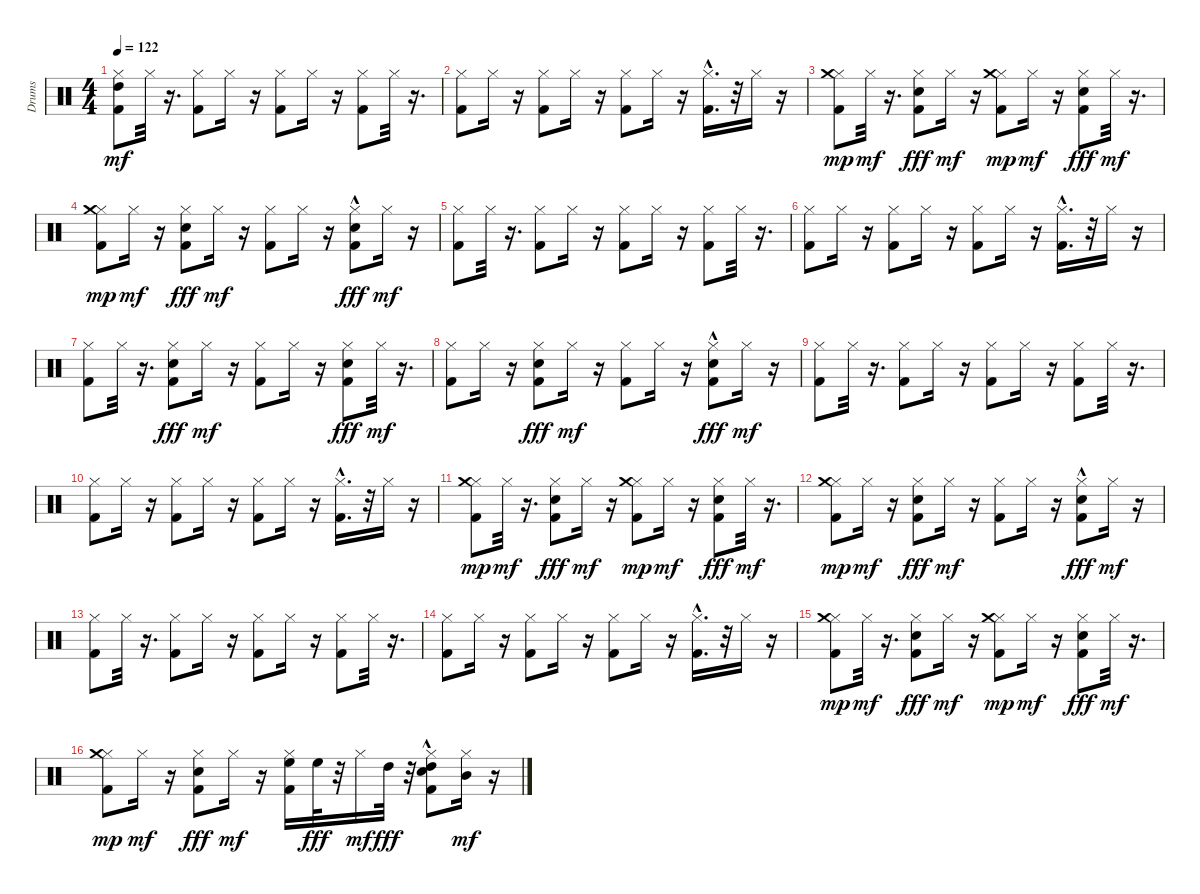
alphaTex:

\track ("Drums" "Drums") {instrument percussion}
\staff {score}
\articulation defaults
\ts (4 4)
\tempo 122
\clef neutral
\ks c
("High Tom (hit)" "Hi-Hat (closed)" "Kick (hit) 2").8{dy mf} "Hi-Hat (closed)".32 r.16{d} ("Hi-Hat (closed)" "Kick (hit) 2").8 "Hi-Hat (closed)".16 r.16 ("Hi-Hat (closed)" "Kick (hit) 2").8 "Hi-Hat (closed)".16 r.16 ("Hi-Hat (closed)" "Kick (hit) 2").8 "Hi-Hat (closed)".32 r.16{d} |
("Hi-Hat (closed)" "Kick (hit) 2").8 "Hi-Hat (closed)".16 r.16 ("Hi-Hat (closed)" "Kick (hit) 2").8 "Hi-Hat (closed)".16 r.16 ("Hi-Hat (closed)" "Kick (hit) 2").8 "Hi-Hat (closed)".16 r.16 ("Hi-Hat (closed)" "Kick (hit) 2"{hac}).16{d} r.32 "Hi-Hat (closed)".16 r.16 |
("Hi-Hat (closed)" "Crash medium (hit)" "Kick (hit) 2").8{dy mp} "Hi-Hat (closed)".32{dy mf} r.16{d} ("Hi-Hat (closed)" "Electric Snare (hit)" "Kick (hit) 2").8{dy fff} "Hi-Hat (closed)".16{dy mf} r.16 ("Hi-Hat (closed)" "Crash medium (hit)" "Kick (hit) 2").8{dy mp} "Hi-Hat (closed)".16{dy mf} r.16 ("Hi-Hat (closed)" "Electric Snare (hit)" "Kick (hit) 2").8{dy fff} "Hi-Hat (closed)".32{dy mf} r.16{d} |
("Hi-Hat (closed)" "Crash medium (hit)" "Kick (hit) 2").8{dy mp} "Hi-Hat (closed)".16{dy mf} r.16 ("Hi-Hat (closed)" "Electric Snare (hit)" "Kick (hit) 2").8{dy fff} "Hi-Hat (closed)".16{dy mf} r.16 ("Hi-Hat (closed)" "Kick (hit) 2").8 "Hi-Hat (closed)".16 r.16 ("Hi-Hat (closed)" "Electric Snare (hit)" "Kick (hit) 2"{hac}).8{dy fff} "Hi-Hat (closed)".16{dy mf} r.16 |
("Hi-Hat (closed)" "Kick (hit) 2").8 "Hi-Hat (closed)".32 r.16{d} ("Hi-Hat (closed)" "Kick (hit) 2").8 "Hi-Hat (closed)".16 r.16 ("Hi-Hat (closed)" "Kick (hit) 2").8 "Hi-Hat (closed)".16 r.16 ("Hi-Hat (closed)" "Kick (hit) 2").8 "Hi-Hat (closed)".32 r.16{d} |
("Hi-Hat (closed)" "Kick (hit) 2").8 "Hi-Hat (closed)".16 r.16 ("Hi-Hat (closed)" "Kick (hit) 2").8 "Hi-Hat (closed)".16 r.16 ("Hi-Hat (closed)" "Kick (hit) 2").8 "Hi-Hat (closed)".16 r.16 ("Hi-Hat (closed)" "Kick (hit) 2"{hac}).16{d} r.32 "Hi-Hat (closed)".16 r.16 |
("Hi-Hat (closed)" "Kick (hit) 2").8 "Hi-Hat (closed)".32 r.16{d} ("Hi-Hat (closed)" "Electric Snare (hit)" "Kick (hit) 2").8{dy fff} "Hi-Hat (closed)".16{dy mf} r.16 ("Hi-Hat (closed)" "Kick (hit) 2").8 "Hi-Hat (closed)".16 r.16 ("Hi-Hat (closed)" "Electric Snare (hit)" "Kick (hit) 2").8{dy fff} "Hi-Hat (closed)".32{dy mf} r.16{d} |
("Hi-Hat (closed)" "Kick (hit) 2").8 "Hi-Hat (closed)".16 r.16 ("Hi-Hat (closed)" "Electric Snare (hit)" "Kick (hit) 2").8{dy fff} "Hi-Hat (closed)".16{dy mf} r.16 ("Hi-Hat (closed)" "Kick (hit) 2").8 "Hi-Hat (closed)".16 r.16 ("Hi-Hat (closed)" "Electric Snare (hit)" "Kick (hit) 2"{hac}).8{dy fff} "Hi-Hat (closed)".16{dy mf} r.16 |
("Hi-Hat (closed)" "Kick (hit) 2").8 "Hi-Hat (closed)".32 r.16{d} ("Hi-Hat (closed)" "Kick (hit) 2").8 "Hi-Hat (closed)".16 r.16 ("Hi-Hat (closed)" "Kick (hit) 2").8 "Hi-Hat (closed)".16 r.16 ("Hi-Hat (closed)" "Kick (hit) 2").8 "Hi-Hat (closed)".32 r.16{d} |
("Hi-Hat (closed)" "Kick (hit) 2").8 "Hi-Hat (closed)".16 r.16 ("Hi-Hat (closed)" "Kick (hit) 2").8 "Hi-Hat (closed)".16 r.16 ("Hi-Hat (closed)" "Kick (hit) 2").8 "Hi-Hat (closed)".16 r.16 ("Hi-Hat (closed)" "Kick (hit) 2"{hac}).16{d} r.32 "Hi-Hat (closed)".16 r.16 |
("Hi-Hat (closed)" "Crash medium (hit)" "Kick (hit) 2").8{dy mp} "Hi-Hat (closed)".32{dy mf} r.16{d} ("Hi-Hat (closed)" "Electric Snare (hit)" "Kick (hit) 2").8{dy fff} "Hi-Hat (closed)".16{dy mf} r.16 ("Hi-Hat (closed)" "Crash medium (hit)" "Kick (hit) 2").8{dy mp} "Hi-Hat (closed)".16{dy mf} r.16 ("Hi-Hat (closed)" "Electric Snare (hit)" "Kick (hit) 2").8{dy fff} "Hi-Hat (closed)".32{dy mf} r.16{d} |
("Hi-Hat (closed)" "Crash medium (hit)" "Kick (hit) 2").8{dy mp} "Hi-Hat (closed)".16{dy mf} r.16 ("Hi-Hat (closed)" "Electric Snare (hit)" "Kick (hit) 2").8{dy fff} "Hi-Hat (closed)".16{dy mf} r.16 ("Hi-Hat (closed)" "Kick (hit) 2").8 "Hi-Hat (closed)".16 r.16 ("Hi-Hat (closed)" "Electric Snare (hit)" "Kick (hit) 2"{hac}).8{dy fff} "Hi-Hat (closed)".16{dy mf} r.16 |
("Hi-Hat (closed)" "Kick (hit) 2").8 "Hi-Hat (closed)".32 r.16{d} ("Hi-Hat (closed)" "Kick (hit) 2").8 "Hi-Hat (closed)".16 r.16 ("Hi-Hat (closed)" "Kick (hit) 2").8 "Hi-Hat (closed)".16 r.16 ("Hi-Hat (closed)" "Kick (hit) 2").8 "Hi-Hat (closed)".32 r.16{d} |
("Hi-Hat (closed)" "Kick (hit) 2").8 "Hi-Hat (closed)".16 r.16 ("Hi-Hat (closed)" "Kick (hit) 2").8 "Hi-Hat (closed)".16 r.16 ("Hi-Hat (closed)" "Kick (hit) 2").8 "Hi-Hat (closed)".16 r.16 ("Hi-Hat (closed)" "Kick (hit) 2"{hac}).16{d} r.32 "Hi-Hat (closed)".16 r.16 |
("Hi-Hat (closed)" "Crash medium (hit)" "Kick (hit) 2").8{dy mp} "Hi-Hat (closed)".32{dy mf} r.16{d} ("Hi-Hat (closed)" "Electric Snare (hit)" "Kick (hit) 2").8{dy fff} "Hi-Hat (closed)".16{dy mf} r.16 ("Hi-Hat (closed)" "Crash medium (hit)" "Kick (hit) 2").8{dy mp} "Hi-Hat (closed)".16{dy mf} r.16 ("Hi-Hat (closed)" "Electric Snare (hit)" "Kick (hit) 2").8{dy fff} "Hi-Hat (closed)".32{dy mf} r.16{d} |
("Hi-Hat (closed)" "Crash medium (hit)" "Kick (hit) 2").8{dy mp} "Hi-Hat (closed)".16{dy mf} r.16 ("Hi-Hat (closed)" "Electric Snare (hit)" "Kick (hit) 2").8{dy fff} "Hi-Hat (closed)".16{dy mf} r.16 ("High Floor Tom (hit)" "Hi-Hat (closed)" "Kick (hit) 2").16 "High Floor Tom (hit)".32{dy fff} r.32 "Hi-Hat (closed)".16{dy mf} "High Tom (hit)".32{dy fff} r.32 ("High Tom (hit)" "Hi-Hat (closed)" "Electric Snare (hit)" "Kick (hit) 2"{hac}).8 ("Mid Tom (hit)" "Hi-Hat (closed)").16{dy mf} r.16
